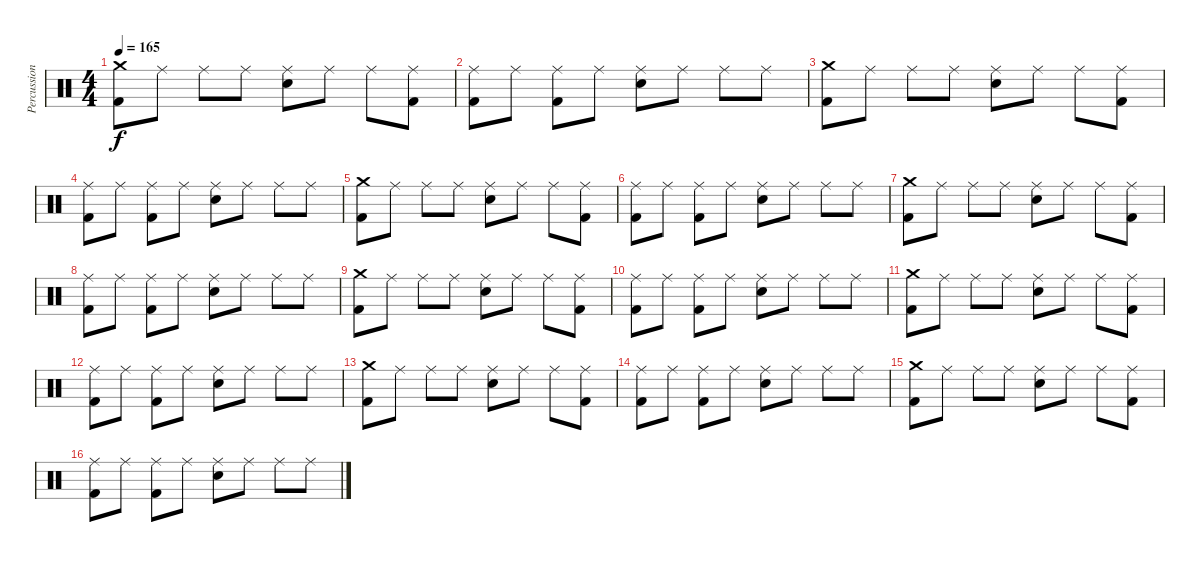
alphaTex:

\track ("Percussion" "Percussion") {instrument percussion}
\staff {score}
\articulation defaults
\ts (4 4)
\tempo 165
\clef neutral
\ks c
("Crash medium (hit)" "Kick (hit) 2").8{dy f} "Ride (middle)".8 "Ride (middle)".8 "Ride (middle)".8 ("Ride (middle)" "Electric Snare (hit)").8 "Ride (middle)".8 "Ride (middle)".8 ("Ride (middle)" "Kick (hit) 2").8 |
("Ride (middle)" "Kick (hit) 2").8 "Ride (middle)".8 ("Ride (middle)" "Kick (hit) 2").8 "Ride (middle)".8 ("Ride (middle)" "Electric Snare (hit)").8 "Ride (middle)".8 "Ride (middle)".8 "Ride (middle)".8 |
("Crash medium (hit)" "Kick (hit) 2").8 "Ride (middle)".8 "Ride (middle)".8 "Ride (middle)".8 ("Ride (middle)" "Electric Snare (hit)").8 "Ride (middle)".8 "Ride (middle)".8 ("Ride (middle)" "Kick (hit) 2").8 |
("Ride (middle)" "Kick (hit) 2").8 "Ride (middle)".8 ("Ride (middle)" "Kick (hit) 2").8 "Ride (middle)".8 ("Ride (middle)" "Electric Snare (hit)").8 "Ride (middle)".8 "Ride (middle)".8 "Ride (middle)".8 |
("Crash medium (hit)" "Kick (hit) 2").8 "Ride (middle)".8 "Ride (middle)".8 "Ride (middle)".8 ("Ride (middle)" "Electric Snare (hit)").8 "Ride (middle)".8 "Ride (middle)".8 ("Ride (middle)" "Kick (hit) 2").8 |
("Ride (middle)" "Kick (hit) 2").8 "Ride (middle)".8 ("Ride (middle)" "Kick (hit) 2").8 "Ride (middle)".8 ("Ride (middle)" "Electric Snare (hit)").8 "Ride (middle)".8 "Ride (middle)".8 "Ride (middle)".8 |
("Crash medium (hit)" "Kick (hit) 2").8 "Ride (middle)".8 "Ride (middle)".8 "Ride (middle)".8 ("Ride (middle)" "Electric Snare (hit)").8 "Ride (middle)".8 "Ride (middle)".8 ("Ride (middle)" "Kick (hit) 2").8 |
("Ride (middle)" "Kick (hit) 2").8 "Ride (middle)".8 ("Ride (middle)" "Kick (hit) 2").8 "Ride (middle)".8 ("Ride (middle)" "Electric Snare (hit)").8 "Ride (middle)".8 "Ride (middle)".8 "Ride (middle)".8 |
("Crash medium (hit)" "Kick (hit) 2").8 "Ride (middle)".8 "Ride (middle)".8 "Ride (middle)".8 ("Ride (middle)" "Electric Snare (hit)").8 "Ride (middle)".8 "Ride (middle)".8 ("Ride (middle)" "Kick (hit) 2").8 |
("Ride (middle)" "Kick (hit) 2").8 "Ride (middle)".8 ("Ride (middle)" "Kick (hit) 2").8 "Ride (middle)".8 ("Ride (middle)" "Electric Snare (hit)").8 "Ride (middle)".8 "Ride (middle)".8 "Ride (middle)".8 |
("Crash medium (hit)" "Kick (hit) 2").8 "Ride (middle)".8 "Ride (middle)".8 "Ride (middle)".8 ("Ride (middle)" "Electric Snare (hit)").8 "Ride (middle)".8 "Ride (middle)".8 ("Ride (middle)" "Kick (hit) 2").8 |
("Ride (middle)" "Kick (hit) 2").8 "Ride (middle)".8 ("Ride (middle)" "Kick (hit) 2").8 "Ride (middle)".8 ("Ride (middle)" "Electric Snare (hit)").8 "Ride (middle)".8 "Ride (middle)".8 "Ride (middle)".8 |
("Crash medium (hit)" "Kick (hit) 2").8 "Ride (middle)".8 "Ride (middle)".8 "Ride (middle)".8 ("Ride (middle)" "Electric Snare (hit)").8 "Ride (middle)".8 "Ride (middle)".8 ("Ride (middle)" "Kick (hit) 2").8 |
("Ride (middle)" "Kick (hit) 2").8 "Ride (middle)".8 ("Ride (middle)" "Kick (hit) 2").8 "Ride (middle)".8 ("Ride (middle)" "Electric Snare (hit)").8 "Ride (middle)".8 "Ride (middle)".8 "Ride (middle)".8 |
("Crash medium (hit)" "Kick (hit) 2").8 "Ride (middle)".8 "Ride (middle)".8 "Ride (middle)".8 ("Ride (middle)" "Electric Snare (hit)").8 "Ride (middle)".8 "Ride (middle)".8 ("Ride (middle)" "Kick (hit) 2").8 |
("Ride (middle)" "Kick (hit) 2").8 "Ride (middle)".8 ("Ride (middle)" "Kick (hit) 2").8 "Ride (middle)".8 ("Ride (middle)" "Electric Snare (hit)").8 "Ride (middle)".8 "Ride (middle)".8 "Ride (middle)".8
